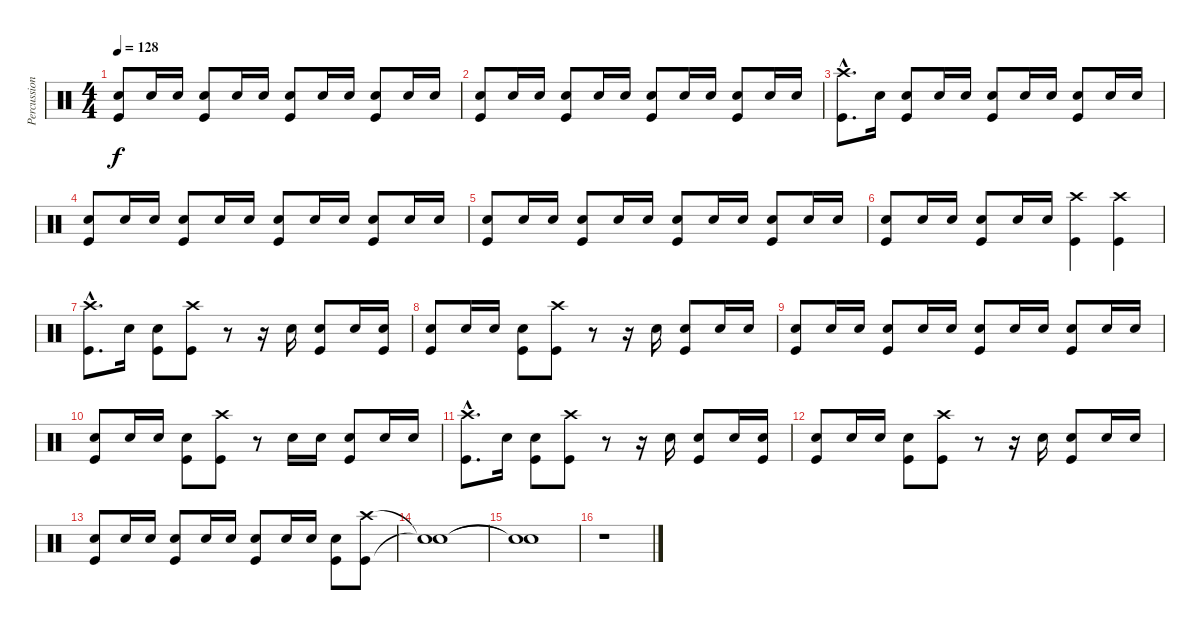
\track ("Percussion" "Percussion") {instrument percussion}
\staff {score}
\articulation defaults
\ts (4 4)
\tempo 128
\clef neutral
\ks c
("Snare (hit) 2" "Kick (hit)").8{dy f} "Snare (hit) 2".16 "Snare (hit) 2".16 ("Snare (hit) 2" "Kick (hit)").8 "Snare (hit) 2".16 "Snare (hit) 2".16 ("Snare (hit) 2" "Kick (hit)").8 "Snare (hit) 2".16 "Snare (hit) 2".16 ("Snare (hit) 2" "Kick (hit)").8 "Snare (hit) 2".16 "Snare (hit) 2".16 |
("Snare (hit) 2" "Kick (hit)").8 "Snare (hit) 2".16 "Snare (hit) 2".16 ("Snare (hit) 2" "Kick (hit)").8 "Snare (hit) 2".16 "Snare (hit) 2".16 ("Snare (hit) 2" "Kick (hit)").8 "Snare (hit) 2".16 "Snare (hit) 2".16 ("Snare (hit) 2" "Kick (hit)").8 "Snare (hit) 2".16 "Snare (hit) 2".16 |
("Crash high (hit)"{hac} "Kick (hit)"{hac}).8{d} "Snare (hit) 2".16 ("Snare (hit) 2" "Kick (hit)").8 "Snare (hit) 2".16 "Snare (hit) 2".16 ("Snare (hit) 2" "Kick (hit)").8 "Snare (hit) 2".16 "Snare (hit) 2".16 ("Snare (hit) 2" "Kick (hit)").8 "Snare (hit) 2".16 "Snare (hit) 2".16 |
("Snare (hit) 2" "Kick (hit)").8 "Snare (hit) 2".16 "Snare (hit) 2".16 ("Snare (hit) 2" "Kick (hit)").8 "Snare (hit) 2".16 "Snare (hit) 2".16 ("Snare (hit) 2" "Kick (hit)").8 "Snare (hit) 2".16 "Snare (hit) 2".16 ("Snare (hit) 2" "Kick (hit)").8 "Snare (hit) 2".16 "Snare (hit) 2".16 |
("Snare (hit) 2" "Kick (hit)").8 "Snare (hit) 2".16 "Snare (hit) 2".16 ("Snare (hit) 2" "Kick (hit)").8 "Snare (hit) 2".16 "Snare (hit) 2".16 ("Snare (hit) 2" "Kick (hit)").8 "Snare (hit) 2".16 "Snare (hit) 2".16 ("Snare (hit) 2" "Kick (hit)").8 "Snare (hit) 2".16 "Snare (hit) 2".16 |
("Snare (hit) 2" "Kick (hit)").8 "Snare (hit) 2".16 "Snare (hit) 2".16 ("Snare (hit) 2" "Kick (hit)").8 "Snare (hit) 2".16 "Snare (hit) 2".16 ("Crash high (hit)" "Kick (hit)").4 ("Crash high (hit)" "Kick (hit)").4 |
("Crash high (hit)"{hac} "Kick (hit)"{hac}).8{d} "Snare (hit) 2".16 ("Snare (hit) 2" "Kick (hit)").8 ("Crash high (hit)" "Kick (hit)").8 r.8 r.16 "Snare (hit) 2".16 ("Snare (hit) 2" "Kick (hit)").8 "Snare (hit) 2".16 ("Snare (hit) 2" "Kick (hit)").16 |
("Snare (hit) 2" "Kick (hit)").8 "Snare (hit) 2".16 "Snare (hit) 2".16 ("Snare (hit) 2" "Kick (hit)").8 ("Crash high (hit)" "Kick (hit)").8 r.8 r.16 "Snare (hit) 2".16 ("Snare (hit) 2" "Kick (hit)").8 "Snare (hit) 2".16 "Snare (hit) 2".16 |
("Snare (hit) 2" "Kick (hit)").8 "Snare (hit) 2".16 "Snare (hit) 2".16 ("Snare (hit) 2" "Kick (hit)").8 "Snare (hit) 2".16 "Snare (hit) 2".16 ("Snare (hit) 2" "Kick (hit)").8 "Snare (hit) 2".16 "Snare (hit) 2".16 ("Snare (hit) 2" "Kick (hit)").8 "Snare (hit) 2".16 "Snare (hit) 2".16 |
("Snare (hit) 2" "Kick (hit)").8 "Snare (hit) 2".16 "Snare (hit) 2".16 ("Snare (hit) 2" "Kick (hit)").8 ("Crash high (hit)" "Kick (hit)").8 r.8 "Snare (hit) 2".16 "Snare (hit) 2".16 ("Snare (hit) 2" "Kick (hit)").8 "Snare (hit) 2".16 "Snare (hit) 2".16 |
("Crash high (hit)"{hac} "Kick (hit)"{hac}).8{d} "Snare (hit) 2".16 ("Snare (hit) 2" "Kick (hit)").8 ("Crash high (hit)" "Kick (hit)").8 r.8 r.16 "Snare (hit) 2".16 ("Snare (hit) 2" "Kick (hit)").8 "Snare (hit) 2".16 ("Snare (hit) 2" "Kick (hit)").16 |
("Snare (hit) 2" "Kick (hit)").8 "Snare (hit) 2".16 "Snare (hit) 2".16 ("Snare (hit) 2" "Kick (hit)").8 ("Crash high (hit)" "Kick (hit)").8 r.8 r.16 "Snare (hit) 2".16 ("Snare (hit) 2" "Kick (hit)").8 "Snare (hit) 2".16 "Snare (hit) 2".16 |
("Snare (hit) 2" "Kick (hit)").8 "Snare (hit) 2".16 "Snare (hit) 2".16 ("Snare (hit) 2" "Kick (hit)").8 "Snare (hit) 2".16 "Snare (hit) 2".16 ("Snare (hit) 2" "Kick (hit)").8 "Snare (hit) 2".16 "Snare (hit) 2".16 ("Snare (hit) 2" "Kick (hit)").8 ("Crash high (hit)" "Kick (hit)").8 |
("Snare (hit)"{t} "Snare (hit)"{t}).1 |
("Snare (hit)"{t} "Snare (hit)"{t}).1 |
r.1
